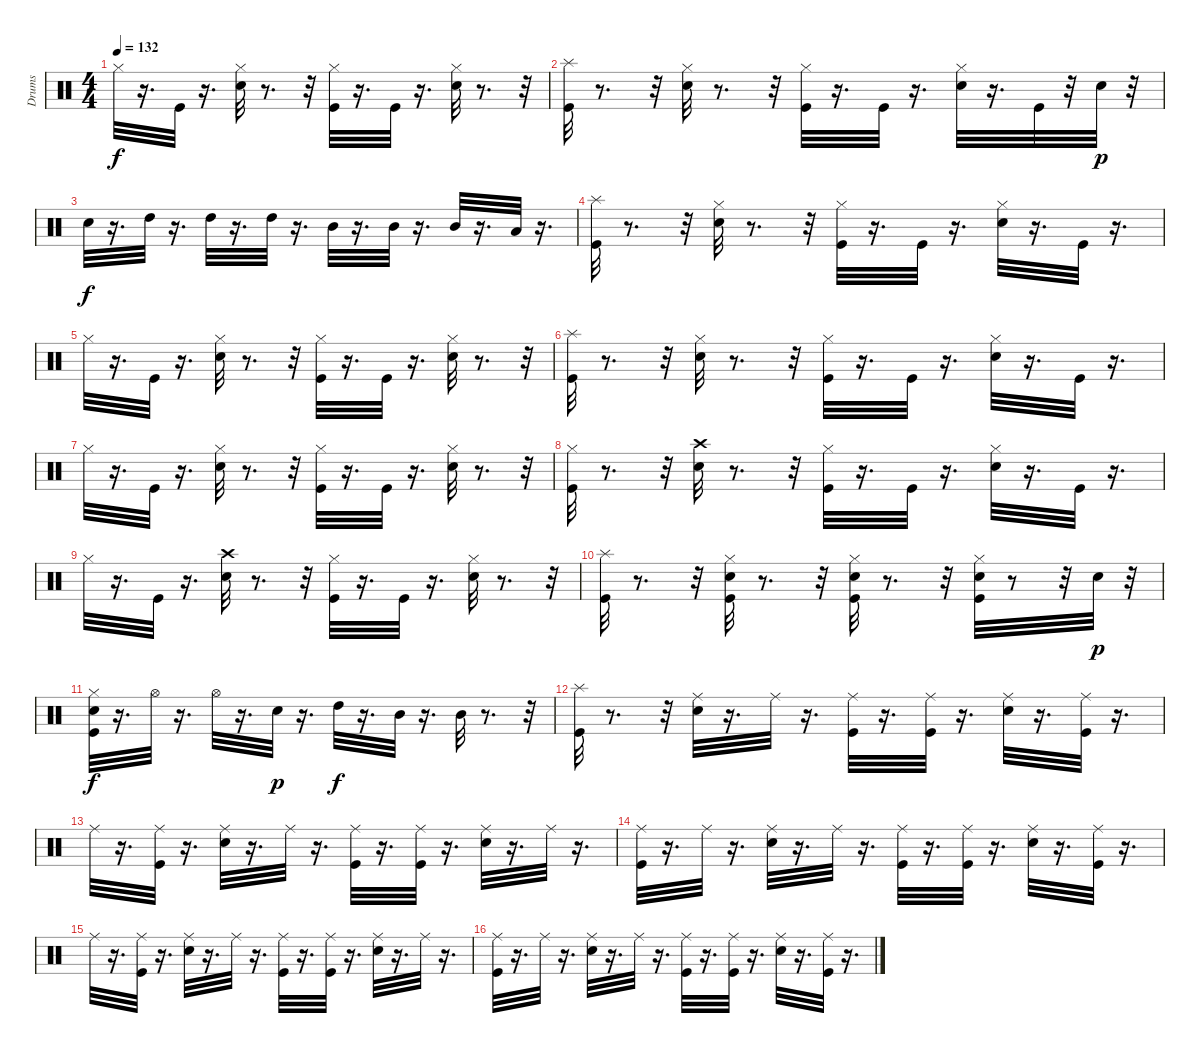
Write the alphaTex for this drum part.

\track ("Drums" "Drums") {instrument percussion}
\staff {score}
\articulation defaults
\ts (4 4)
\tempo 132
\clef neutral
\ks c "Hi-Hat (closed)".32{dy f}
r.16{d} "Kick (hit)".32 r.16{d} ("Hi-Hat (closed)" "Snare (hit) 2").32 r.8{d} r.32 ("Hi-Hat (closed)" "Kick (hit)").32 r.16{d} "Kick (hit)".32 r.16{d} ("Snare (hit) 2" "Hi-Hat (closed)").32 r.8{d} r.32 |
("Splash (hit)" "Kick (hit)").32 r.8{d} r.32 ("Hi-Hat (closed)" "Snare (hit) 2").32 r.8{d} r.32 ("Kick (hit)" "Hi-Hat (closed)").32 r.16{d} "Kick (hit)".32 r.16{d} ("Hi-Hat (closed)" "Snare (hit) 2").32 r.16{d} "Kick (hit)".32 r.32 "Snare (hit) 2".32{dy p} r.32 |
"Snare (hit) 2".32{dy f} r.16{d} "High Tom (hit)".32 r.16{d} "High Tom (hit)".32 r.16{d} "High Tom (hit)".32 r.16{d} "Mid Tom (hit)".32 r.16{d} "Mid Tom (hit)".32 r.16{d} "Mid Tom (hit)".32 r.16{d} "Low Tom (hit)".32 r.16{d} |
("Splash (hit)" "Kick (hit)").32 r.8{d} r.32 ("Hi-Hat (closed)" "Snare (hit) 2").32 r.8{d} r.32 ("Kick (hit)" "Hi-Hat (closed)").32 r.16{d} "Kick (hit)".32 r.16{d} ("Hi-Hat (closed)" "Snare (hit) 2").32 r.16{d} "Kick (hit)".32 r.16{d} |
"Hi-Hat (closed)".32 r.16{d} "Kick (hit)".32 r.16{d} ("Hi-Hat (closed)" "Snare (hit) 2").32 r.8{d} r.32 ("Hi-Hat (closed)" "Kick (hit)").32 r.16{d} "Kick (hit)".32 r.16{d} ("Snare (hit) 2" "Hi-Hat (closed)").32 r.8{d} r.32 |
("Splash (hit)" "Kick (hit)").32 r.8{d} r.32 ("Hi-Hat (closed)" "Snare (hit) 2").32 r.8{d} r.32 ("Kick (hit)" "Hi-Hat (closed)").32 r.16{d} "Kick (hit)".32 r.16{d} ("Hi-Hat (closed)" "Snare (hit) 2").32 r.16{d} "Kick (hit)".32 r.16{d} |
"Hi-Hat (closed)".32 r.16{d} "Kick (hit)".32 r.16{d} ("Hi-Hat (closed)" "Snare (hit) 2").32 r.8{d} r.32 ("Hi-Hat (closed)" "Kick (hit)").32 r.16{d} "Kick (hit)".32 r.16{d} ("Snare (hit) 2" "Hi-Hat (closed)").32 r.8{d} r.32 |
("Hi-Hat (closed)" "Kick (hit)").32 r.8{d} r.32 ("Crash high (hit)" "Snare (hit) 2").32 r.8{d} r.32 ("Kick (hit)" "Hi-Hat (closed)").32 r.16{d} "Kick (hit)".32 r.16{d} ("Hi-Hat (closed)" "Snare (hit) 2").32 r.16{d} "Kick (hit)".32 r.16{d} |
"Hi-Hat (closed)".32 r.16{d} "Kick (hit)".32 r.16{d} ("Crash high (hit)" "Snare (hit) 2").32 r.8{d} r.32 ("Hi-Hat (closed)" "Kick (hit)").32 r.16{d} "Kick (hit)".32 r.16{d} ("Snare (hit) 2" "Hi-Hat (closed)").32 r.8{d} r.32 |
("Splash (hit)" "Kick (hit)").32 r.8{d} r.32 ("Kick (hit)" "Hi-Hat (closed)" "Snare (hit) 2").32 r.8{d} r.32 ("Snare (hit) 2" "Kick (hit)" "Hi-Hat (closed)").32 r.8{d} r.32 ("Hi-Hat (closed)" "Snare (hit) 2" "Kick (hit)").32 r.8 r.32 "Snare (hit) 2".32{dy p} r.32 |
("Snare (hit) 2" "Hi-Hat (closed)" "Kick (hit)").32{dy f} r.16{d} "Hi-Hat (open)".32 r.16{d} "Hi-Hat (open)".32 r.16{d} "Snare (hit) 2".32{dy p} r.16{d} "High Tom (hit)".32{dy f} r.16{d} "Mid Tom (hit)".32 r.16{d} "Mid Tom (hit)".32 r.8{d} r.32 |
("Splash (hit)" "Kick (hit)").32 r.8{d} r.32 ("Ride (middle)" "Snare (hit) 2").32 r.16{d} "Ride (middle)".32 r.16{d} ("Ride (middle)" "Kick (hit)").32 r.16{d} ("Ride (middle)" "Kick (hit)").32 r.16{d} ("Ride (middle)" "Snare (hit) 2").32 r.16{d} ("Ride (middle)" "Kick (hit)").32 r.16{d} |
"Ride (middle)".32 r.16{d} ("Ride (middle)" "Kick (hit)").32 r.16{d} ("Ride (middle)" "Snare (hit) 2").32 r.16{d} "Ride (middle)".32 r.16{d} ("Kick (hit)" "Ride (middle)").32 r.16{d} ("Ride (middle)" "Kick (hit)").32 r.16{d} ("Ride (middle)" "Snare (hit) 2").32 r.16{d} "Ride (middle)".32 r.16{d} |
("Ride (middle)" "Kick (hit)").32 r.16{d} "Ride (middle)".32 r.16{d} ("Ride (middle)" "Snare (hit) 2").32 r.16{d} "Ride (middle)".32 r.16{d} ("Ride (middle)" "Kick (hit)").32 r.16{d} ("Ride (middle)" "Kick (hit)").32 r.16{d} ("Ride (middle)" "Snare (hit) 2").32 r.16{d} ("Ride (middle)" "Kick (hit)").32 r.16{d} |
"Ride (middle)".32 r.16{d} ("Ride (middle)" "Kick (hit)").32 r.16{d} ("Ride (middle)" "Snare (hit) 2").32 r.16{d} "Ride (middle)".32 r.16{d} ("Ride (middle)" "Kick (hit)").32 r.16{d} ("Ride (middle)" "Kick (hit)").32 r.16{d} ("Ride (middle)" "Snare (hit) 2").32 r.16{d} "Ride (middle)".32 r.16{d} |
("Ride (middle)" "Kick (hit)").32 r.16{d} "Ride (middle)".32 r.16{d} ("Ride (middle)" "Snare (hit) 2").32 r.16{d} "Ride (middle)".32 r.16{d} ("Ride (middle)" "Kick (hit)").32 r.16{d} ("Ride (middle)" "Kick (hit)").32 r.16{d} ("Ride (middle)" "Snare (hit) 2").32 r.16{d} ("Ride (middle)" "Kick (hit)").32 r.16{d}
